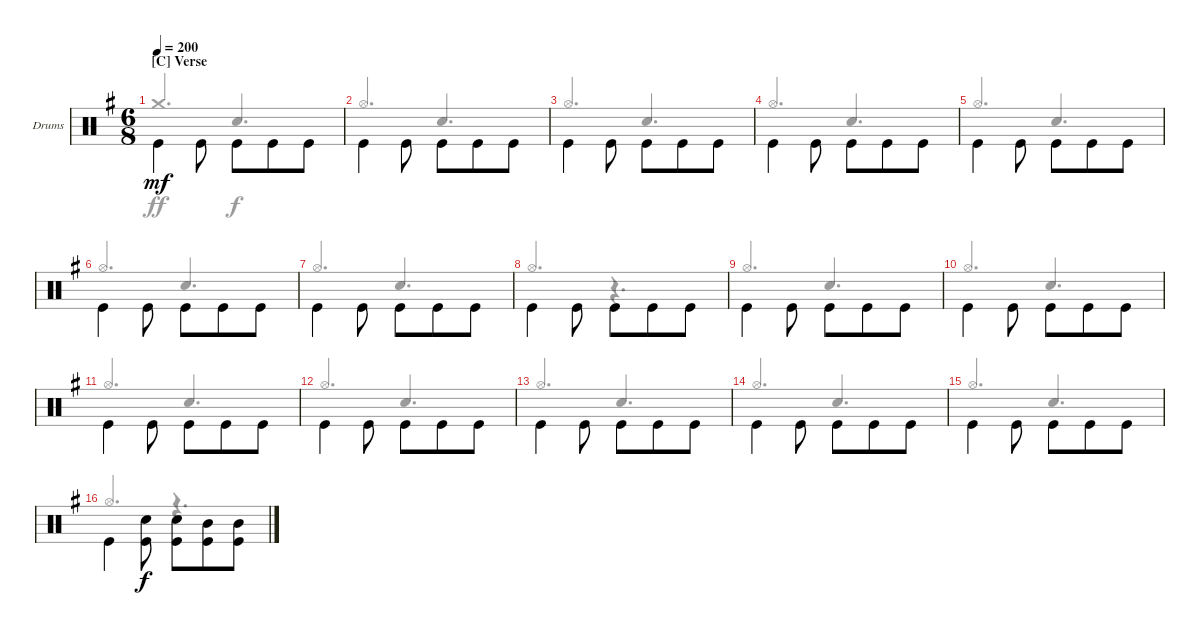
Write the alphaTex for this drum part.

\bracketExtendMode groupsimilarinstruments
\firstSystemTrackNameOrientation horizontal
\otherSystemsTrackNameOrientation horizontal
\track ("Drumkit" "Drums") {instrument percussion}
\staff {score}
\articulation defaults
\voice
\ts (6 8)
\section ("C" "Verse")
\tempo 200
\clef neutral
\ks eminor "Kick (hit)".4{dy mf beam invert} "Kick (hit)".8{beam invert} "Kick (hit)".8{beam invert} "Kick (hit)".8 "Kick (hit)".8
|
"Kick (hit)".4{beam invert} "Kick (hit)".8{beam invert} "Kick (hit)".8 "Kick (hit)".8{beam invert} "Kick (hit)".8 |
"Kick (hit)".4{beam invert} "Kick (hit)".8{beam invert} "Kick (hit)".8{beam invert} "Kick (hit)".8 "Kick (hit)".8 |
"Kick (hit)".4{beam invert} "Kick (hit)".8{beam invert} "Kick (hit)".8 "Kick (hit)".8 "Kick (hit)".8{beam invert} |
"Kick (hit)".4{beam invert} "Kick (hit)".8{beam invert} "Kick (hit)".8{beam invert} "Kick (hit)".8 "Kick (hit)".8 |
"Kick (hit)".4{beam invert} "Kick (hit)".8{beam invert} "Kick (hit)".8 "Kick (hit)".8{beam invert} "Kick (hit)".8 |
"Kick (hit)".4{beam invert} "Kick (hit)".8{beam invert} "Kick (hit)".8{beam invert} "Kick (hit)".8 "Kick (hit)".8 |
"Kick (hit)".4{beam invert} "Kick (hit)".8{beam invert} "Kick (hit)".8 "Kick (hit)".8 "Kick (hit)".8{beam invert} |
"Kick (hit)".4{beam invert} "Kick (hit)".8{beam invert} "Kick (hit)".8{beam invert} "Kick (hit)".8 "Kick (hit)".8 |
"Kick (hit)".4{beam invert} "Kick (hit)".8{beam invert} "Kick (hit)".8 "Kick (hit)".8{beam invert} "Kick (hit)".8 |
"Kick (hit)".4{beam invert} "Kick (hit)".8{beam invert} "Kick (hit)".8{beam invert} "Kick (hit)".8 "Kick (hit)".8 |
"Kick (hit)".4{beam invert} "Kick (hit)".8{beam invert} "Kick (hit)".8 "Kick (hit)".8{beam invert} "Kick (hit)".8 |
"Kick (hit)".4{beam invert} "Kick (hit)".8{beam invert} "Kick (hit)".8{beam invert} "Kick (hit)".8 "Kick (hit)".8 |
"Kick (hit)".4{beam invert} "Kick (hit)".8{beam invert} "Kick (hit)".8 "Kick (hit)".8{beam invert} "Kick (hit)".8 |
"Kick (hit)".4{beam invert} "Kick (hit)".8{beam invert} "Kick (hit)".8{beam invert} "Kick (hit)".8 "Kick (hit)".8 |
"Kick (hit)".4{beam invert} ("Kick (hit)" "Snare (hit) 2").8{dy f beam invert} ("Kick (hit)" "Snare (hit) 2").8 ("Kick (hit)" "Mid Tom (hit)").8 ("Kick (hit)" "Mid Tom (hit)").8{beam invert}
\voice
\clef neutral
\ottava regular
\simile none
\ks eminor "Crash medium (hit)".4{d dy ff beam invert} "Snare (hit) 2".4{d dy f beam invert}
|
"Hi-Hat (open)".4{d beam invert} "Snare (hit) 2".4{d beam invert} |
"Hi-Hat (open)".4{d beam invert} "Snare (hit) 2".4{d beam invert} |
"Hi-Hat (open)".4{d beam invert} "Snare (hit) 2".4{d beam invert} |
"Hi-Hat (open)".4{d beam invert} "Snare (hit) 2".4{d beam invert} |
"Hi-Hat (open)".4{d beam invert} "Snare (hit) 2".4{d beam invert} |
"Hi-Hat (open)".4{d beam invert} "Snare (hit) 2".4{d beam invert} |
"Hi-Hat (open)".4{d beam invert} r.4{d} |
"Hi-Hat (open)".4{d beam invert} "Snare (hit) 2".4{d beam invert} |
"Hi-Hat (open)".4{d beam invert} "Snare (hit) 2".4{d beam invert} |
"Hi-Hat (open)".4{d beam invert} "Snare (hit) 2".4{d beam invert} |
"Hi-Hat (open)".4{d beam invert} "Snare (hit) 2".4{d beam invert} |
"Hi-Hat (open)".4{d beam invert} "Snare (hit) 2".4{d beam invert} |
"Hi-Hat (open)".4{d beam invert} "Snare (hit) 2".4{d beam invert} |
"Hi-Hat (open)".4{d beam invert} "Snare (hit) 2".4{d beam invert} |
"Hi-Hat (open)".4{d beam invert} r.4{d}
